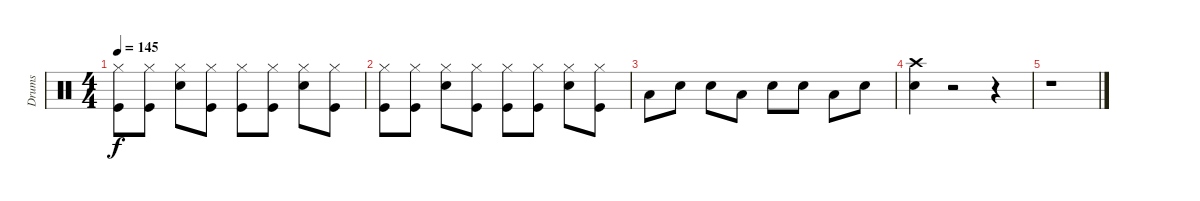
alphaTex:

\track ("Drums" "Drums") {instrument percussion}
\staff {score}
\articulation defaults
\ts (4 4)
\tempo 145
\clef neutral
\ks c
("Kick (hit)" "Hi-Hat (closed)").8{dy f} ("Kick (hit)" "Hi-Hat (closed)").8 ("Hi-Hat (closed)" "Snare (hit) 2").8 ("Kick (hit)" "Hi-Hat (closed)").8 ("Kick (hit)" "Hi-Hat (closed)").8 ("Kick (hit)" "Hi-Hat (closed)").8 ("Hi-Hat (closed)" "Snare (hit) 2").8 ("Kick (hit)" "Hi-Hat (closed)").8 |
("Kick (hit)" "Hi-Hat (closed)").8 ("Kick (hit)" "Hi-Hat (closed)").8 ("Hi-Hat (closed)" "Snare (hit) 2").8 ("Kick (hit)" "Hi-Hat (closed)").8 ("Kick (hit)" "Hi-Hat (closed)").8 ("Kick (hit)" "Hi-Hat (closed)").8 ("Hi-Hat (closed)" "Snare (hit) 2").8 ("Kick (hit)" "Hi-Hat (closed)").8 |
"Low Tom (hit)".8 "Snare (hit) 2".8 "Snare (hit) 2".8 "Low Tom (hit)".8 "Snare (hit) 2".8 "Snare (hit) 2".8 "Low Tom (hit)".8 "Snare (hit) 2".8 |
("Snare (hit) 2" "Crash high (hit)").4 r.2 r.4 |
r.1
